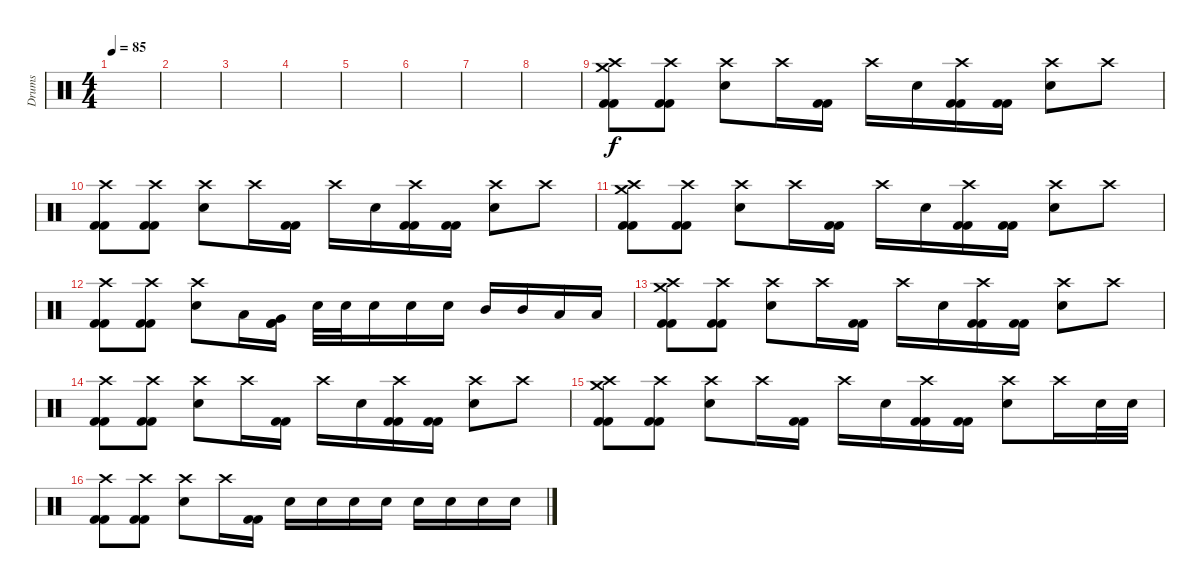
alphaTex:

\track ("Drums" "Drums") {instrument percussion}
\staff {score}
\articulation defaults
\ts (4 4)
\tempo 85
\clef neutral
\ks c
|
|
|
|
|
|
|
|
("Crash medium (hit)" "Crash high (hit)" "Kick (hit) 2" "Kick (hit) 2").8 ("Crash high (hit)" "Kick (hit) 2" "Kick (hit) 2").8 ("Crash high (hit)" "Electric Snare (hit)").8 "Crash high (hit)".16 ("Kick (hit) 2" "Kick (hit) 2").16 "Crash high (hit)".16 "Electric Snare (hit)".16 ("Crash high (hit)" "Kick (hit) 2" "Kick (hit) 2").16 ("Kick (hit) 2" "Kick (hit) 2").16 ("Crash high (hit)" "Electric Snare (hit)").8 "Crash high (hit)".8 |
("Crash high (hit)" "Kick (hit) 2" "Kick (hit) 2").8 ("Crash high (hit)" "Kick (hit) 2" "Kick (hit) 2").8 ("Crash high (hit)" "Electric Snare (hit)").8 "Crash high (hit)".16 ("Kick (hit) 2" "Kick (hit) 2").16 "Crash high (hit)".16 "Electric Snare (hit)".16 ("Crash high (hit)" "Kick (hit) 2" "Kick (hit) 2").16 ("Kick (hit) 2" "Kick (hit) 2").16 ("Crash high (hit)" "Electric Snare (hit)").8 "Crash high (hit)".8 |
("Crash medium (hit)" "Crash high (hit)" "Kick (hit) 2" "Kick (hit) 2").8 ("Crash high (hit)" "Kick (hit) 2" "Kick (hit) 2").8 ("Crash high (hit)" "Electric Snare (hit)").8 "Crash high (hit)".16 ("Kick (hit) 2" "Kick (hit) 2").16 "Crash high (hit)".16 "Electric Snare (hit)".16 ("Crash high (hit)" "Kick (hit) 2" "Kick (hit) 2").16 ("Kick (hit) 2" "Kick (hit) 2").16 ("Crash high (hit)" "Electric Snare (hit)").8 "Crash high (hit)".8 |
("Crash high (hit)" "Kick (hit) 2" "Kick (hit) 2").8 ("Crash high (hit)" "Kick (hit) 2" "Kick (hit) 2").8 ("Crash high (hit)" "Electric Snare (hit)").8 "Low Tom (hit)".16 ("Very Low Tom (hit)" "Kick (hit) 2" "Kick (hit) 2").16 "Electric Snare (hit)".32 "Electric Snare (hit)".32 "Electric Snare (hit)".16 "Electric Snare (hit)".16 "Electric Snare (hit)".16 "Mid Tom (hit)".16 "Mid Tom (hit)".16 "Low Tom (hit)".16 "Low Tom (hit)".16 |
("Crash medium (hit)" "Crash high (hit)" "Kick (hit) 2" "Kick (hit) 2").8 ("Crash high (hit)" "Kick (hit) 2" "Kick (hit) 2").8 ("Crash high (hit)" "Electric Snare (hit)").8 "Crash high (hit)".16 ("Kick (hit) 2" "Kick (hit) 2").16 "Crash high (hit)".16 "Electric Snare (hit)".16 ("Crash high (hit)" "Kick (hit) 2" "Kick (hit) 2").16 ("Kick (hit) 2" "Kick (hit) 2").16 ("Crash high (hit)" "Electric Snare (hit)").8 "Crash high (hit)".8 |
("Crash high (hit)" "Kick (hit) 2" "Kick (hit) 2").8 ("Crash high (hit)" "Kick (hit) 2" "Kick (hit) 2").8 ("Crash high (hit)" "Electric Snare (hit)").8 "Crash high (hit)".16 ("Kick (hit) 2" "Kick (hit) 2").16 "Crash high (hit)".16 "Electric Snare (hit)".16 ("Crash high (hit)" "Kick (hit) 2" "Kick (hit) 2").16 ("Kick (hit) 2" "Kick (hit) 2").16 ("Crash high (hit)" "Electric Snare (hit)").8 "Crash high (hit)".8 |
("Crash medium (hit)" "Crash high (hit)" "Kick (hit) 2" "Kick (hit) 2").8 ("Crash high (hit)" "Kick (hit) 2" "Kick (hit) 2").8 ("Crash high (hit)" "Electric Snare (hit)").8 "Crash high (hit)".16 ("Kick (hit) 2" "Kick (hit) 2").16 "Crash high (hit)".16 "Electric Snare (hit)".16 ("Crash high (hit)" "Kick (hit) 2" "Kick (hit) 2").16 ("Kick (hit) 2" "Kick (hit) 2").16 ("Crash high (hit)" "Electric Snare (hit)").8 "Crash high (hit)".16 "Electric Snare (hit)".32 "Electric Snare (hit)".32 |
("Crash high (hit)" "Kick (hit) 2" "Kick (hit) 2").8 ("Crash high (hit)" "Kick (hit) 2" "Kick (hit) 2").8 ("Crash high (hit)" "Electric Snare (hit)").8 "Crash high (hit)".16 ("Kick (hit) 2" "Kick (hit) 2").16 "Electric Snare (hit)".16 "Electric Snare (hit)".16 "Electric Snare (hit)".16 "Electric Snare (hit)".16 "Electric Snare (hit)".16 "Electric Snare (hit)".16 "Electric Snare (hit)".16 "Electric Snare (hit)".16
